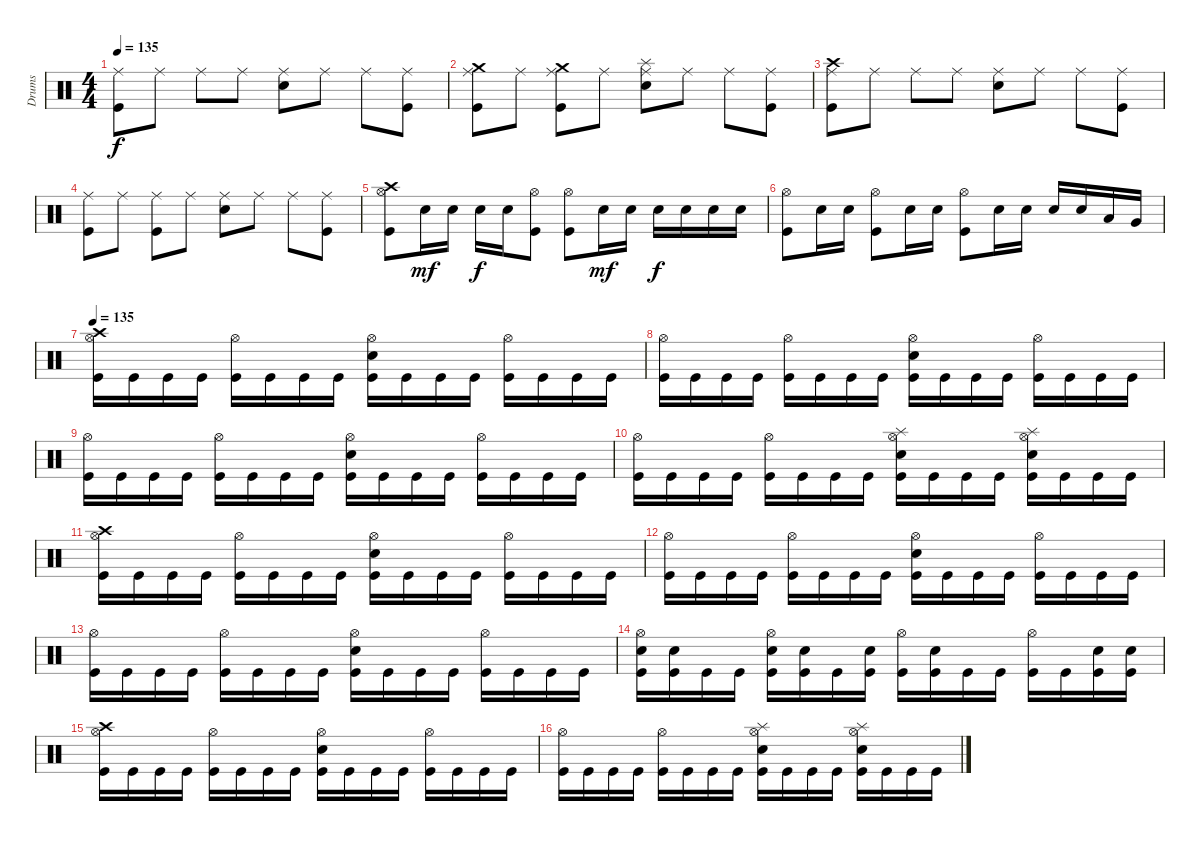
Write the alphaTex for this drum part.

\track ("Drums" "Drums") {instrument percussion}
\staff {score}
\articulation defaults
\ts (4 4)
\tempo 135
\clef neutral
\ks c
("Ride (middle)" "Kick (hit)").8{dy f} "Ride (middle)".8 "Ride (middle)".8 "Ride (middle)".8 ("Ride (middle)" "Electric Snare (hit)").8 "Ride (middle)".8 "Ride (middle)".8 ("Ride (middle)" "Kick (hit)").8 |
("Crash medium (hit)" "Ride (middle)" "Kick (hit)").8 "Ride (middle)".8 ("Crash medium (hit)" "Ride (middle)" "Kick (hit)").8 "Ride (middle)".8 ("Splash (hit)" "Ride (middle)" "Electric Snare (hit)").8 "Ride (middle)".8 "Ride (middle)".8 ("Ride (middle)" "Kick (hit)").8 |
("Crash high (hit)" "Ride (middle)" "Kick (hit)").8 "Ride (middle)".8 "Ride (middle)".8 "Ride (middle)".8 ("Ride (middle)" "Electric Snare (hit)").8 "Ride (middle)".8 "Ride (middle)".8 ("Ride (middle)" "Kick (hit)").8 |
("Ride (middle)" "Kick (hit)").8 "Ride (middle)".8 ("Ride (middle)" "Kick (hit)").8 "Ride (middle)".8 ("Ride (middle)" "Electric Snare (hit)").8 "Ride (middle)".8 "Ride (middle)".8 ("Ride (middle)" "Kick (hit)").8 |
("Crash high (hit)" "Hi-Hat (open)" "Kick (hit)").8 "Electric Snare (hit)".16{dy mf} "Electric Snare (hit)".16 "Electric Snare (hit)".16{dy f} "Electric Snare (hit)".16 ("Hi-Hat (open)" "Kick (hit)").8 ("Hi-Hat (open)" "Kick (hit)").8 "Electric Snare (hit)".16{dy mf} "Electric Snare (hit)".16 "Electric Snare (hit)".16{dy f} "Electric Snare (hit)".16 "Electric Snare (hit)".16 "Electric Snare (hit)".16 |
("Hi-Hat (open)" "Kick (hit)").8 "Electric Snare (hit)".16 "Electric Snare (hit)".16 ("Hi-Hat (open)" "Kick (hit)").8 "Electric Snare (hit)".16 "Electric Snare (hit)".16 ("Hi-Hat (open)" "Kick (hit)").8 "Electric Snare (hit)".16 "Electric Snare (hit)".16 "Electric Snare (hit)".16 "Electric Snare (hit)".16 "Low Tom (hit)".16 "Very Low Tom (hit)".16 |
\tempo 135
("Crash high (hit)" "Hi-Hat (open)" "Kick (hit)").16 "Kick (hit)".16 "Kick (hit)".16 "Kick (hit)".16 ("Hi-Hat (open)" "Kick (hit)").16 "Kick (hit)".16 "Kick (hit)".16 "Kick (hit)".16 ("Hi-Hat (open)" "Electric Snare (hit)" "Kick (hit)").16 "Kick (hit)".16 "Kick (hit)".16 "Kick (hit)".16 ("Hi-Hat (open)" "Kick (hit)").16 "Kick (hit)".16 "Kick (hit)".16 "Kick (hit)".16 |
("Hi-Hat (open)" "Kick (hit)").16 "Kick (hit)".16 "Kick (hit)".16 "Kick (hit)".16 ("Hi-Hat (open)" "Kick (hit)").16 "Kick (hit)".16 "Kick (hit)".16 "Kick (hit)".16 ("Hi-Hat (open)" "Electric Snare (hit)" "Kick (hit)").16 "Kick (hit)".16 "Kick (hit)".16 "Kick (hit)".16 ("Hi-Hat (open)" "Kick (hit)").16 "Kick (hit)".16 "Kick (hit)".16 "Kick (hit)".16 |
("Hi-Hat (open)" "Kick (hit)").16 "Kick (hit)".16 "Kick (hit)".16 "Kick (hit)".16 ("Hi-Hat (open)" "Kick (hit)").16 "Kick (hit)".16 "Kick (hit)".16 "Kick (hit)".16 ("Hi-Hat (open)" "Electric Snare (hit)" "Kick (hit)").16 "Kick (hit)".16 "Kick (hit)".16 "Kick (hit)".16 ("Hi-Hat (open)" "Kick (hit)").16 "Kick (hit)".16 "Kick (hit)".16 "Kick (hit)".16 |
("Hi-Hat (open)" "Kick (hit)").16 "Kick (hit)".16 "Kick (hit)".16 "Kick (hit)".16 ("Hi-Hat (open)" "Kick (hit)").16 "Kick (hit)".16 "Kick (hit)".16 "Kick (hit)".16 ("Splash (hit)" "Hi-Hat (open)" "Electric Snare (hit)" "Kick (hit)").16 "Kick (hit)".16 "Kick (hit)".16 "Kick (hit)".16 ("Splash (hit)" "Hi-Hat (open)" "Electric Snare (hit)" "Kick (hit)").16 "Kick (hit)".16 "Kick (hit)".16 "Kick (hit)".16 |
("Crash high (hit)" "Hi-Hat (open)" "Kick (hit)").16 "Kick (hit)".16 "Kick (hit)".16 "Kick (hit)".16 ("Hi-Hat (open)" "Kick (hit)").16 "Kick (hit)".16 "Kick (hit)".16 "Kick (hit)".16 ("Hi-Hat (open)" "Electric Snare (hit)" "Kick (hit)").16 "Kick (hit)".16 "Kick (hit)".16 "Kick (hit)".16 ("Hi-Hat (open)" "Kick (hit)").16 "Kick (hit)".16 "Kick (hit)".16 "Kick (hit)".16 |
("Hi-Hat (open)" "Kick (hit)").16 "Kick (hit)".16 "Kick (hit)".16 "Kick (hit)".16 ("Hi-Hat (open)" "Kick (hit)").16 "Kick (hit)".16 "Kick (hit)".16 "Kick (hit)".16 ("Hi-Hat (open)" "Electric Snare (hit)" "Kick (hit)").16 "Kick (hit)".16 "Kick (hit)".16 "Kick (hit)".16 ("Hi-Hat (open)" "Kick (hit)").16 "Kick (hit)".16 "Kick (hit)".16 "Kick (hit)".16 |
("Hi-Hat (open)" "Kick (hit)").16 "Kick (hit)".16 "Kick (hit)".16 "Kick (hit)".16 ("Hi-Hat (open)" "Kick (hit)").16 "Kick (hit)".16 "Kick (hit)".16 "Kick (hit)".16 ("Hi-Hat (open)" "Electric Snare (hit)" "Kick (hit)").16 "Kick (hit)".16 "Kick (hit)".16 "Kick (hit)".16 ("Hi-Hat (open)" "Kick (hit)").16 "Kick (hit)".16 "Kick (hit)".16 "Kick (hit)".16 |
("Hi-Hat (open)" "Electric Snare (hit)" "Kick (hit)").16 ("Electric Snare (hit)" "Kick (hit)").16 "Kick (hit)".16 "Kick (hit)".16 ("Hi-Hat (open)" "Electric Snare (hit)" "Kick (hit)").16 ("Electric Snare (hit)" "Kick (hit)").16 "Kick (hit)".16 ("Electric Snare (hit)" "Kick (hit)").16 ("Hi-Hat (open)" "Kick (hit)").16 ("Electric Snare (hit)" "Kick (hit)").16 "Kick (hit)".16 "Kick (hit)".16 ("Hi-Hat (open)" "Kick (hit)").16 "Kick (hit)".16 ("Electric Snare (hit)" "Kick (hit)").16 ("Electric Snare (hit)" "Kick (hit)").16 |
("Crash high (hit)" "Hi-Hat (open)" "Kick (hit)").16 "Kick (hit)".16 "Kick (hit)".16 "Kick (hit)".16 ("Hi-Hat (open)" "Kick (hit)").16 "Kick (hit)".16 "Kick (hit)".16 "Kick (hit)".16 ("Hi-Hat (open)" "Electric Snare (hit)" "Kick (hit)").16 "Kick (hit)".16 "Kick (hit)".16 "Kick (hit)".16 ("Hi-Hat (open)" "Kick (hit)").16 "Kick (hit)".16 "Kick (hit)".16 "Kick (hit)".16 |
("Hi-Hat (open)" "Kick (hit)").16 "Kick (hit)".16 "Kick (hit)".16 "Kick (hit)".16 ("Hi-Hat (open)" "Kick (hit)").16 "Kick (hit)".16 "Kick (hit)".16 "Kick (hit)".16 ("Splash (hit)" "Hi-Hat (open)" "Electric Snare (hit)" "Kick (hit)").16 "Kick (hit)".16 "Kick (hit)".16 "Kick (hit)".16 ("Splash (hit)" "Hi-Hat (open)" "Electric Snare (hit)" "Kick (hit)").16 "Kick (hit)".16 "Kick (hit)".16 "Kick (hit)".16
